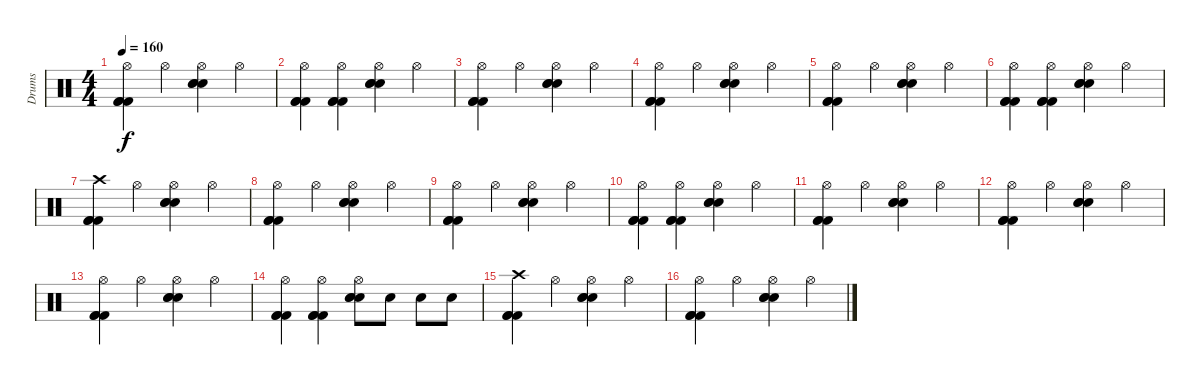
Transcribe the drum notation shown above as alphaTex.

\track ("Drums" "Drums") {instrument percussion}
\staff {score}
\articulation defaults
\ts (4 4)
\tempo 160
\clef neutral
\ks c
("Hi-Hat (open)" "Kick (hit) 2" "Kick (hit) 2" "Kick (hit) 2").4{dy f} "Hi-Hat (open)".4 ("Hi-Hat (open)" "Electric Snare (hit)" "Electric Snare (hit)" "Electric Snare (hit)").4 "Hi-Hat (open)".4 |
("Hi-Hat (open)" "Kick (hit) 2" "Kick (hit) 2" "Kick (hit) 2").4 ("Hi-Hat (open)" "Kick (hit) 2" "Kick (hit) 2" "Kick (hit) 2").4 ("Hi-Hat (open)" "Electric Snare (hit)" "Electric Snare (hit)" "Electric Snare (hit)").4 "Hi-Hat (open)".4 |
("Hi-Hat (open)" "Kick (hit) 2" "Kick (hit) 2" "Kick (hit) 2").4 "Hi-Hat (open)".4 ("Hi-Hat (open)" "Electric Snare (hit)" "Electric Snare (hit)" "Electric Snare (hit)").4 "Hi-Hat (open)".4 |
("Hi-Hat (open)" "Kick (hit) 2" "Kick (hit) 2" "Kick (hit) 2").4 "Hi-Hat (open)".4 ("Hi-Hat (open)" "Electric Snare (hit)" "Electric Snare (hit)" "Electric Snare (hit)").4 "Hi-Hat (open)".4 |
("Hi-Hat (open)" "Kick (hit) 2" "Kick (hit) 2" "Kick (hit) 2").4 "Hi-Hat (open)".4 ("Hi-Hat (open)" "Electric Snare (hit)" "Electric Snare (hit)" "Electric Snare (hit)").4 "Hi-Hat (open)".4 |
("Hi-Hat (open)" "Kick (hit) 2" "Kick (hit) 2" "Kick (hit) 2").4 ("Hi-Hat (open)" "Kick (hit) 2" "Kick (hit) 2" "Kick (hit) 2").4 ("Hi-Hat (open)" "Electric Snare (hit)" "Electric Snare (hit)" "Electric Snare (hit)").4 "Hi-Hat (open)".4 |
("Crash high (hit)" "Kick (hit) 2" "Kick (hit) 2" "Kick (hit) 2").4 "Hi-Hat (open)".4 ("Hi-Hat (open)" "Electric Snare (hit)" "Electric Snare (hit)" "Electric Snare (hit)").4 "Hi-Hat (open)".4 |
("Hi-Hat (open)" "Kick (hit) 2" "Kick (hit) 2" "Kick (hit) 2").4 "Hi-Hat (open)".4 ("Hi-Hat (open)" "Electric Snare (hit)" "Electric Snare (hit)" "Electric Snare (hit)").4 "Hi-Hat (open)".4 |
("Hi-Hat (open)" "Kick (hit) 2" "Kick (hit) 2" "Kick (hit) 2").4 "Hi-Hat (open)".4 ("Hi-Hat (open)" "Electric Snare (hit)" "Electric Snare (hit)" "Electric Snare (hit)").4 "Hi-Hat (open)".4 |
("Hi-Hat (open)" "Kick (hit) 2" "Kick (hit) 2" "Kick (hit) 2").4 ("Hi-Hat (open)" "Kick (hit) 2" "Kick (hit) 2" "Kick (hit) 2").4 ("Hi-Hat (open)" "Electric Snare (hit)" "Electric Snare (hit)" "Electric Snare (hit)").4 "Hi-Hat (open)".4 |
("Hi-Hat (open)" "Kick (hit) 2" "Kick (hit) 2" "Kick (hit) 2").4 "Hi-Hat (open)".4 ("Hi-Hat (open)" "Electric Snare (hit)" "Electric Snare (hit)" "Electric Snare (hit)").4 "Hi-Hat (open)".4 |
("Hi-Hat (open)" "Kick (hit) 2" "Kick (hit) 2" "Kick (hit) 2").4 "Hi-Hat (open)".4 ("Hi-Hat (open)" "Electric Snare (hit)" "Electric Snare (hit)" "Electric Snare (hit)").4 "Hi-Hat (open)".4 |
("Hi-Hat (open)" "Kick (hit) 2" "Kick (hit) 2" "Kick (hit) 2").4 "Hi-Hat (open)".4 ("Hi-Hat (open)" "Electric Snare (hit)" "Electric Snare (hit)" "Electric Snare (hit)").4 "Hi-Hat (open)".4 |
("Hi-Hat (open)" "Kick (hit) 2" "Kick (hit) 2" "Kick (hit) 2").4 ("Hi-Hat (open)" "Kick (hit) 2" "Kick (hit) 2" "Kick (hit) 2").4 ("Hi-Hat (open)" "Electric Snare (hit)" "Electric Snare (hit)" "Electric Snare (hit)").8 "Electric Snare (hit)".8 "Electric Snare (hit)".8 "Electric Snare (hit)".8 |
("Crash high (hit)" "Kick (hit) 2" "Kick (hit) 2" "Kick (hit) 2").4 "Hi-Hat (open)".4 ("Hi-Hat (open)" "Electric Snare (hit)" "Electric Snare (hit)" "Electric Snare (hit)").4 "Hi-Hat (open)".4 |
("Hi-Hat (open)" "Kick (hit) 2" "Kick (hit) 2" "Kick (hit) 2").4 "Hi-Hat (open)".4 ("Hi-Hat (open)" "Electric Snare (hit)" "Electric Snare (hit)" "Electric Snare (hit)").4 "Hi-Hat (open)".4
